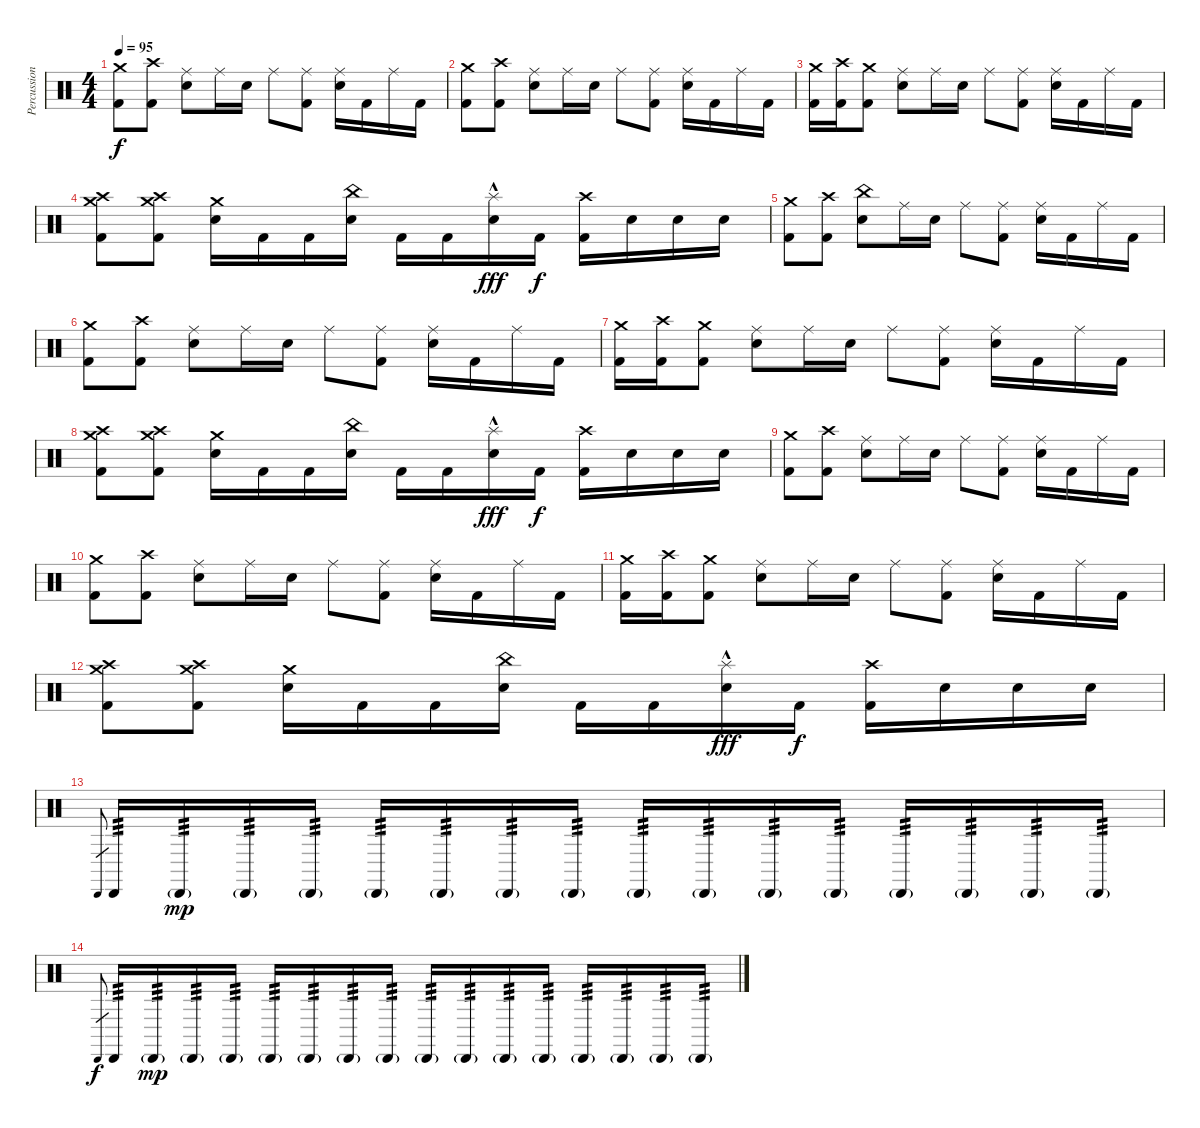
\track ("Percussions" "Percussion") {instrument percussion}
\staff {score}
\articulation defaults
\ts (4 4)
\tempo 95
\clef neutral
\ks c
("Crash medium (hit)" "Kick (hit) 2").8{dy f} ("Crash high (hit)" "Kick (hit) 2").8 ("Ride (middle)" "Electric Snare (hit)").8 "Ride (middle)".16 "Electric Snare (hit)".16 "Ride (middle)".8 ("Ride (middle)" "Kick (hit) 2").8 ("Ride (middle)" "Electric Snare (hit)").16 "Kick (hit) 2".16 "Ride (middle)".16 "Kick (hit) 2".16 |
("Crash medium (hit)" "Kick (hit) 2").8 ("Crash high (hit)" "Kick (hit) 2").8 ("Ride (middle)" "Electric Snare (hit)").8 "Ride (middle)".16 "Electric Snare (hit)".16 "Ride (middle)".8 ("Ride (middle)" "Kick (hit) 2").8 ("Ride (middle)" "Electric Snare (hit)").16 "Kick (hit) 2".16 "Ride (middle)".16 "Kick (hit) 2".16 |
("Crash medium (hit)" "Kick (hit) 2").16 ("Crash high (hit)" "Kick (hit) 2").16 ("Crash medium (hit)" "Kick (hit) 2").8 ("Ride (middle)" "Electric Snare (hit)").8 "Ride (middle)".16 "Electric Snare (hit)".16 "Ride (middle)".8 ("Ride (middle)" "Kick (hit) 2").8 ("Ride (middle)" "Electric Snare (hit)").16 "Kick (hit) 2".16 "Ride (middle)".16 "Kick (hit) 2".16 |
("Crash medium (hit)" "Crash high (hit)" "Kick (hit) 2").8 ("Crash high (hit)" "Crash medium (hit)" "Kick (hit) 2").8 ("Crash medium (hit)" "Electric Snare (hit)").16 "Kick (hit) 2".16 "Kick (hit) 2".16 ("China (hit)" "Electric Snare (hit)").16 "Kick (hit) 2".16 "Kick (hit) 2".16 ("Splash (hit)"{hac} "Electric Snare (hit)").16{dy fff} "Kick (hit) 2".16{dy f} ("Crash high (hit)" "Kick (hit) 2").16 "Electric Snare (hit)".16 "Electric Snare (hit)".16 "Electric Snare (hit)".16 |
("Crash medium (hit)" "Kick (hit) 2").8 ("Crash high (hit)" "Kick (hit) 2").8 ("China (hit)" "Electric Snare (hit)").8 "Ride (middle)".16 "Electric Snare (hit)".16 "Ride (middle)".8 ("Ride (middle)" "Kick (hit) 2").8 ("Ride (middle)" "Electric Snare (hit)").16 "Kick (hit) 2".16 "Ride (middle)".16 "Kick (hit) 2".16 |
("Crash medium (hit)" "Kick (hit) 2").8 ("Crash high (hit)" "Kick (hit) 2").8 ("Ride (middle)" "Electric Snare (hit)").8 "Ride (middle)".16 "Electric Snare (hit)".16 "Ride (middle)".8 ("Ride (middle)" "Kick (hit) 2").8 ("Ride (middle)" "Electric Snare (hit)").16 "Kick (hit) 2".16 "Ride (middle)".16 "Kick (hit) 2".16 |
("Crash medium (hit)" "Kick (hit) 2").16 ("Crash high (hit)" "Kick (hit) 2").16 ("Crash medium (hit)" "Kick (hit) 2").8 ("Ride (middle)" "Electric Snare (hit)").8 "Ride (middle)".16 "Electric Snare (hit)".16 "Ride (middle)".8 ("Ride (middle)" "Kick (hit) 2").8 ("Ride (middle)" "Electric Snare (hit)").16 "Kick (hit) 2".16 "Ride (middle)".16 "Kick (hit) 2".16 |
("Crash medium (hit)" "Crash high (hit)" "Kick (hit) 2").8 ("Crash high (hit)" "Crash medium (hit)" "Kick (hit) 2").8 ("Crash medium (hit)" "Electric Snare (hit)").16 "Kick (hit) 2".16 "Kick (hit) 2".16 ("China (hit)" "Electric Snare (hit)").16 "Kick (hit) 2".16 "Kick (hit) 2".16 ("Splash (hit)"{hac} "Electric Snare (hit)").16{dy fff} "Kick (hit) 2".16{dy f} ("Crash high (hit)" "Kick (hit) 2").16 "Electric Snare (hit)".16 "Electric Snare (hit)".16 "Electric Snare (hit)".16 |
("Crash medium (hit)" "Kick (hit) 2").8 ("Crash high (hit)" "Kick (hit) 2").8 ("Ride (middle)" "Electric Snare (hit)").8 "Ride (middle)".16 "Electric Snare (hit)".16 "Ride (middle)".8 ("Ride (middle)" "Kick (hit) 2").8 ("Ride (middle)" "Electric Snare (hit)").16 "Kick (hit) 2".16 "Ride (middle)".16 "Kick (hit) 2".16 |
("Crash medium (hit)" "Kick (hit) 2").8 ("Crash high (hit)" "Kick (hit) 2").8 ("Ride (middle)" "Electric Snare (hit)").8 "Ride (middle)".16 "Electric Snare (hit)".16 "Ride (middle)".8 ("Ride (middle)" "Kick (hit) 2").8 ("Ride (middle)" "Electric Snare (hit)").16 "Kick (hit) 2".16 "Ride (middle)".16 "Kick (hit) 2".16 |
("Crash medium (hit)" "Kick (hit) 2").16 ("Crash high (hit)" "Kick (hit) 2").16 ("Crash medium (hit)" "Kick (hit) 2").8 ("Ride (middle)" "Electric Snare (hit)").8 "Ride (middle)".16 "Electric Snare (hit)".16 "Ride (middle)".8 ("Ride (middle)" "Kick (hit) 2").8 ("Ride (middle)" "Electric Snare (hit)").16 "Kick (hit) 2".16 "Ride (middle)".16 "Kick (hit) 2".16 |
("Crash medium (hit)" "Crash high (hit)" "Kick (hit) 2").8 ("Crash high (hit)" "Crash medium (hit)" "Kick (hit) 2").8 ("Crash medium (hit)" "Electric Snare (hit)").16 "Kick (hit) 2".16 "Kick (hit) 2".16 ("China (hit)" "Electric Snare (hit)").16 "Kick (hit) 2".16 "Kick (hit) 2".16 ("Splash (hit)"{hac} "Electric Snare (hit)").16{dy fff} "Kick (hit) 2".16{dy f} ("Crash high (hit)" "Kick (hit) 2").16 "Electric Snare (hit)".16 "Electric Snare (hit)".16 "Electric Snare (hit)".16 |
"Cabasa (hit)".8{gr} "Cabasa (hit)".16{tp 3 volume 1} "Cabasa (hit)"{g}.16{tp 3 dy mp} "Cabasa (hit)"{g}.16{tp 3} "Cabasa (hit)"{g}.16{tp 3} "Cabasa (hit)"{g}.16{tp 3} "Cabasa (hit)"{g}.16{tp 3} "Cabasa (hit)"{g}.16{tp 3} "Cabasa (hit)"{g}.16{tp 3} "Cabasa (hit)"{g}.16{tp 3} "Cabasa (hit)"{g}.16{tp 3} "Cabasa (hit)"{g}.16{tp 3} "Cabasa (hit)"{g}.16{tp 3} "Cabasa (hit)"{g}.16{tp 3} "Cabasa (hit)"{g}.16{tp 3} "Cabasa (hit)"{g}.16{tp 3} "Cabasa (hit)"{g}.16{tp 3} |
"Cabasa (hit)".8{gr dy f} "Cabasa (hit)".16{tp 3} "Cabasa (hit)"{g}.16{tp 3 dy mp} "Cabasa (hit)"{g}.16{tp 3} "Cabasa (hit)"{g}.16{tp 3} "Cabasa (hit)"{g}.16{tp 3} "Cabasa (hit)"{g}.16{tp 3} "Cabasa (hit)"{g}.16{tp 3} "Cabasa (hit)"{g}.16{tp 3} "Cabasa (hit)"{g}.16{tp 3} "Cabasa (hit)"{g}.16{tp 3} "Cabasa (hit)"{g}.16{tp 3} "Cabasa (hit)"{g}.16{tp 3} "Cabasa (hit)"{g}.16{tp 3} "Cabasa (hit)"{g}.16{tp 3} "Cabasa (hit)"{g}.16{tp 3} "Cabasa (hit)"{g}.16{tp 3}
